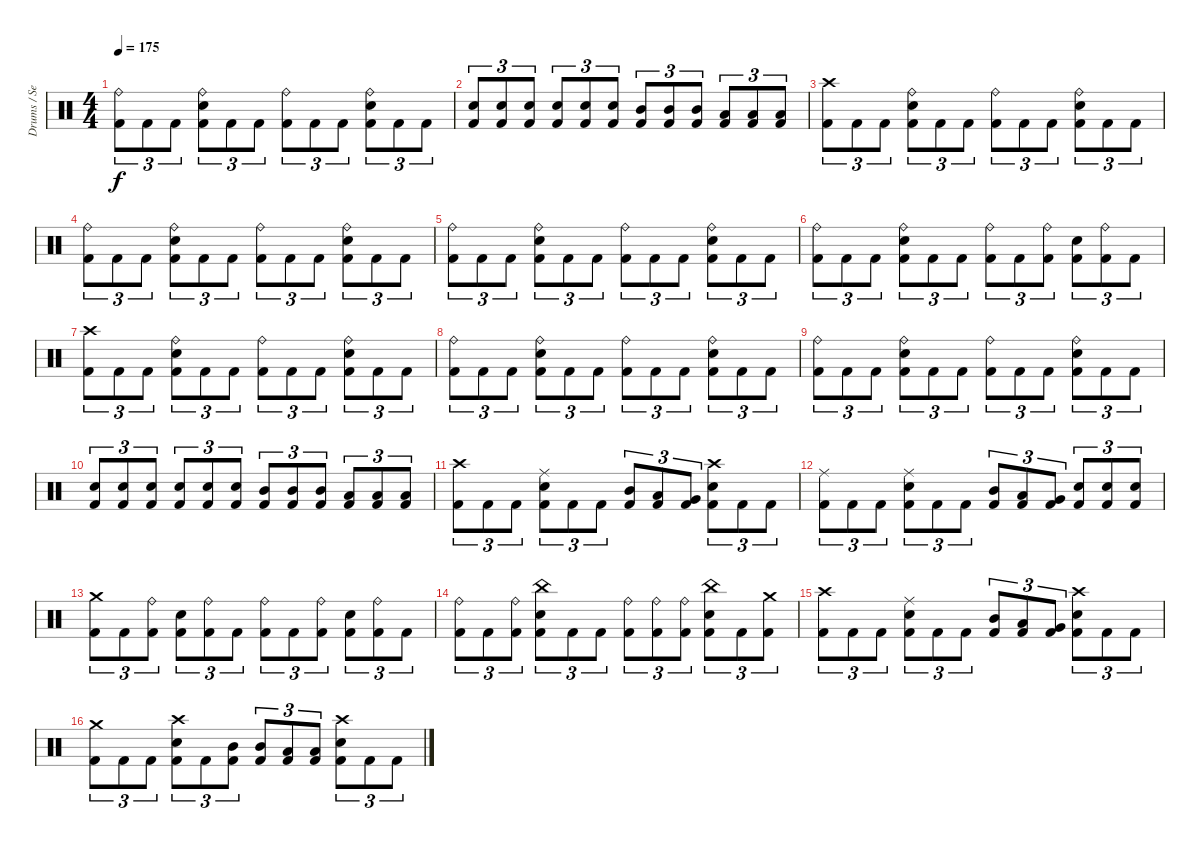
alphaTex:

\track ("Drums / Sean" "Drums / Se") {instrument percussion}
\staff {score}
\articulation defaults
\ts (4 4)
\tempo 175
\clef neutral
\ks c
("Ride (bell)" "Kick (hit) 2").8{tu (3 2) dy f} "Kick (hit) 2".8{tu (3 2)} "Kick (hit) 2".8{tu (3 2)} ("Ride (bell)" "Electric Snare (hit)" "Kick (hit) 2").8{tu (3 2)} "Kick (hit) 2".8{tu (3 2)} "Kick (hit) 2".8{tu (3 2)} ("Ride (bell)" "Kick (hit) 2").8{tu (3 2)} "Kick (hit) 2".8{tu (3 2)} "Kick (hit) 2".8{tu (3 2)} ("Ride (bell)" "Electric Snare (hit)" "Kick (hit) 2").8{tu (3 2)} "Kick (hit) 2".8{tu (3 2)} "Kick (hit) 2".8{tu (3 2)} |
("Electric Snare (hit)" "Kick (hit) 2").8{tu (3 2)} ("Electric Snare (hit)" "Kick (hit) 2").8{tu (3 2)} ("Electric Snare (hit)" "Kick (hit) 2").8{tu (3 2)} ("Electric Snare (hit)" "Kick (hit) 2").8{tu (3 2)} ("Electric Snare (hit)" "Kick (hit) 2").8{tu (3 2)} ("Electric Snare (hit)" "Kick (hit) 2").8{tu (3 2)} ("Mid Tom (hit)" "Kick (hit) 2").8{tu (3 2)} ("Mid Tom (hit)" "Kick (hit) 2").8{tu (3 2)} ("Mid Tom (hit)" "Kick (hit) 2").8{tu (3 2)} ("Low Tom (hit)" "Kick (hit) 2").8{tu (3 2)} ("Low Tom (hit)" "Kick (hit) 2").8{tu (3 2)} ("Low Tom (hit)" "Kick (hit) 2").8{tu (3 2)} |
("Crash high (hit)" "Kick (hit) 2").8{tu (3 2)} "Kick (hit) 2".8{tu (3 2)} "Kick (hit) 2".8{tu (3 2)} ("Ride (bell)" "Electric Snare (hit)" "Kick (hit) 2").8{tu (3 2)} "Kick (hit) 2".8{tu (3 2)} "Kick (hit) 2".8{tu (3 2)} ("Ride (bell)" "Kick (hit) 2").8{tu (3 2)} "Kick (hit) 2".8{tu (3 2)} "Kick (hit) 2".8{tu (3 2)} ("Ride (bell)" "Electric Snare (hit)" "Kick (hit) 2").8{tu (3 2)} "Kick (hit) 2".8{tu (3 2)} "Kick (hit) 2".8{tu (3 2)} |
("Ride (bell)" "Kick (hit) 2").8{tu (3 2)} "Kick (hit) 2".8{tu (3 2)} "Kick (hit) 2".8{tu (3 2)} ("Ride (bell)" "Electric Snare (hit)" "Kick (hit) 2").8{tu (3 2)} "Kick (hit) 2".8{tu (3 2)} "Kick (hit) 2".8{tu (3 2)} ("Ride (bell)" "Kick (hit) 2").8{tu (3 2)} "Kick (hit) 2".8{tu (3 2)} "Kick (hit) 2".8{tu (3 2)} ("Ride (bell)" "Electric Snare (hit)" "Kick (hit) 2").8{tu (3 2)} "Kick (hit) 2".8{tu (3 2)} "Kick (hit) 2".8{tu (3 2)} |
("Ride (bell)" "Kick (hit) 2").8{tu (3 2)} "Kick (hit) 2".8{tu (3 2)} "Kick (hit) 2".8{tu (3 2)} ("Ride (bell)" "Electric Snare (hit)" "Kick (hit) 2").8{tu (3 2)} "Kick (hit) 2".8{tu (3 2)} "Kick (hit) 2".8{tu (3 2)} ("Ride (bell)" "Kick (hit) 2").8{tu (3 2)} "Kick (hit) 2".8{tu (3 2)} "Kick (hit) 2".8{tu (3 2)} ("Ride (bell)" "Electric Snare (hit)" "Kick (hit) 2").8{tu (3 2)} "Kick (hit) 2".8{tu (3 2)} "Kick (hit) 2".8{tu (3 2)} |
("Ride (bell)" "Kick (hit) 2").8{tu (3 2)} "Kick (hit) 2".8{tu (3 2)} "Kick (hit) 2".8{tu (3 2)} ("Ride (bell)" "Electric Snare (hit)" "Kick (hit) 2").8{tu (3 2)} "Kick (hit) 2".8{tu (3 2)} "Kick (hit) 2".8{tu (3 2)} ("Ride (bell)" "Kick (hit) 2").8{tu (3 2)} "Kick (hit) 2".8{tu (3 2)} ("Ride (bell)" "Kick (hit) 2").8{tu (3 2)} ("Electric Snare (hit)" "Kick (hit) 2").8{tu (3 2)} ("Ride (bell)" "Kick (hit) 2").8{tu (3 2)} "Kick (hit) 2".8{tu (3 2)} |
("Crash high (hit)" "Kick (hit) 2").8{tu (3 2)} "Kick (hit) 2".8{tu (3 2)} "Kick (hit) 2".8{tu (3 2)} ("Ride (bell)" "Electric Snare (hit)" "Kick (hit) 2").8{tu (3 2)} "Kick (hit) 2".8{tu (3 2)} "Kick (hit) 2".8{tu (3 2)} ("Ride (bell)" "Kick (hit) 2").8{tu (3 2)} "Kick (hit) 2".8{tu (3 2)} "Kick (hit) 2".8{tu (3 2)} ("Ride (bell)" "Electric Snare (hit)" "Kick (hit) 2").8{tu (3 2)} "Kick (hit) 2".8{tu (3 2)} "Kick (hit) 2".8{tu (3 2)} |
("Ride (bell)" "Kick (hit) 2").8{tu (3 2)} "Kick (hit) 2".8{tu (3 2)} "Kick (hit) 2".8{tu (3 2)} ("Ride (bell)" "Electric Snare (hit)" "Kick (hit) 2").8{tu (3 2)} "Kick (hit) 2".8{tu (3 2)} "Kick (hit) 2".8{tu (3 2)} ("Ride (bell)" "Kick (hit) 2").8{tu (3 2)} "Kick (hit) 2".8{tu (3 2)} "Kick (hit) 2".8{tu (3 2)} ("Ride (bell)" "Electric Snare (hit)" "Kick (hit) 2").8{tu (3 2)} "Kick (hit) 2".8{tu (3 2)} "Kick (hit) 2".8{tu (3 2)} |
("Ride (bell)" "Kick (hit) 2").8{tu (3 2)} "Kick (hit) 2".8{tu (3 2)} "Kick (hit) 2".8{tu (3 2)} ("Ride (bell)" "Electric Snare (hit)" "Kick (hit) 2").8{tu (3 2)} "Kick (hit) 2".8{tu (3 2)} "Kick (hit) 2".8{tu (3 2)} ("Ride (bell)" "Kick (hit) 2").8{tu (3 2)} "Kick (hit) 2".8{tu (3 2)} "Kick (hit) 2".8{tu (3 2)} ("Ride (bell)" "Electric Snare (hit)" "Kick (hit) 2").8{tu (3 2)} "Kick (hit) 2".8{tu (3 2)} "Kick (hit) 2".8{tu (3 2)} |
("Electric Snare (hit)" "Kick (hit) 2").8{tu (3 2)} ("Electric Snare (hit)" "Kick (hit) 2").8{tu (3 2)} ("Electric Snare (hit)" "Kick (hit) 2").8{tu (3 2)} ("Electric Snare (hit)" "Kick (hit) 2").8{tu (3 2)} ("Electric Snare (hit)" "Kick (hit) 2").8{tu (3 2)} ("Electric Snare (hit)" "Kick (hit) 2").8{tu (3 2)} ("Mid Tom (hit)" "Kick (hit) 2").8{tu (3 2)} ("Mid Tom (hit)" "Kick (hit) 2").8{tu (3 2)} ("Mid Tom (hit)" "Kick (hit) 2").8{tu (3 2)} ("Low Tom (hit)" "Kick (hit) 2").8{tu (3 2)} ("Low Tom (hit)" "Kick (hit) 2").8{tu (3 2)} ("Low Tom (hit)" "Kick (hit) 2").8{tu (3 2)} |
("Crash high (hit)" "Kick (hit) 2").8{tu (3 2)} "Kick (hit) 2".8{tu (3 2)} "Kick (hit) 2".8{tu (3 2)} ("Ride (middle)" "Electric Snare (hit)" "Kick (hit) 2").8{tu (3 2)} "Kick (hit) 2".8{tu (3 2)} "Kick (hit) 2".8{tu (3 2)} ("Mid Tom (hit)" "Kick (hit) 2").8{tu (3 2)} ("Low Tom (hit)" "Kick (hit) 2").8{tu (3 2)} ("Very Low Tom (hit)" "Kick (hit) 2").8{tu (3 2)} ("Crash high (hit)" "Electric Snare (hit)" "Kick (hit) 2").8{tu (3 2)} "Kick (hit) 2".8{tu (3 2)} "Kick (hit) 2".8{tu (3 2)} |
("Ride (middle)" "Kick (hit) 2").8{tu (3 2)} "Kick (hit) 2".8{tu (3 2)} "Kick (hit) 2".8{tu (3 2)} ("Ride (middle)" "Electric Snare (hit)" "Kick (hit) 2").8{tu (3 2)} "Kick (hit) 2".8{tu (3 2)} "Kick (hit) 2".8{tu (3 2)} ("Mid Tom (hit)" "Kick (hit) 2").8{tu (3 2)} ("Low Tom (hit)" "Kick (hit) 2").8{tu (3 2)} ("Very Low Tom (hit)" "Kick (hit) 2").8{tu (3 2)} ("Electric Snare (hit)" "Kick (hit) 2").8{tu (3 2)} ("Electric Snare (hit)" "Kick (hit) 2").8{tu (3 2)} ("Electric Snare (hit)" "Kick (hit) 2").8{tu (3 2)} |
("Crash medium (hit)" "Kick (hit) 2").8{tu (3 2)} "Kick (hit) 2".8{tu (3 2)} ("Ride (bell)" "Kick (hit) 2").8{tu (3 2)} ("Electric Snare (hit)" "Kick (hit) 2").8{tu (3 2)} ("Ride (bell)" "Kick (hit) 2").8{tu (3 2)} "Kick (hit) 2".8{tu (3 2)} ("Ride (bell)" "Kick (hit) 2").8{tu (3 2)} "Kick (hit) 2".8{tu (3 2)} ("Ride (bell)" "Kick (hit) 2").8{tu (3 2)} ("Electric Snare (hit)" "Kick (hit) 2").8{tu (3 2)} ("Ride (bell)" "Kick (hit) 2").8{tu (3 2)} "Kick (hit) 2".8{tu (3 2)} |
("Ride (bell)" "Kick (hit) 2").8{tu (3 2)} "Kick (hit) 2".8{tu (3 2)} ("Ride (bell)" "Kick (hit) 2").8{tu (3 2)} ("China (hit)" "Electric Snare (hit)" "Kick (hit) 2").8{tu (3 2)} "Kick (hit) 2".8{tu (3 2)} "Kick (hit) 2".8{tu (3 2)} ("Ride (bell)" "Kick (hit) 2").8{tu (3 2)} ("Ride (bell)" "Kick (hit) 2").8{tu (3 2)} ("Ride (bell)" "Kick (hit) 2").8{tu (3 2)} ("China (hit)" "Electric Snare (hit)" "Kick (hit) 2").8{tu (3 2)} "Kick (hit) 2".8{tu (3 2)} ("Crash medium (hit)" "Kick (hit) 2").8{tu (3 2)} |
("Crash high (hit)" "Kick (hit) 2").8{tu (3 2)} "Kick (hit) 2".8{tu (3 2)} "Kick (hit) 2".8{tu (3 2)} ("Ride (middle)" "Electric Snare (hit)" "Kick (hit) 2").8{tu (3 2)} "Kick (hit) 2".8{tu (3 2)} "Kick (hit) 2".8{tu (3 2)} ("Mid Tom (hit)" "Kick (hit) 2").8{tu (3 2)} ("Low Tom (hit)" "Kick (hit) 2").8{tu (3 2)} ("Very Low Tom (hit)" "Kick (hit) 2").8{tu (3 2)} ("Crash high (hit)" "Electric Snare (hit)" "Kick (hit) 2").8{tu (3 2)} "Kick (hit) 2".8{tu (3 2)} "Kick (hit) 2".8{tu (3 2)} |
("Crash medium (hit)" "Kick (hit) 2").8{tu (3 2)} "Kick (hit) 2".8{tu (3 2)} "Kick (hit) 2".8{tu (3 2)} ("Crash high (hit)" "Electric Snare (hit)" "Kick (hit) 2").8{tu (3 2)} "Kick (hit) 2".8{tu (3 2)} ("Mid Tom (hit)" "Kick (hit) 2").8{tu (3 2)} ("Mid Tom (hit)" "Kick (hit) 2").8{tu (3 2)} ("Low Tom (hit)" "Kick (hit) 2").8{tu (3 2)} ("Low Tom (hit)" "Kick (hit) 2").8{tu (3 2)} ("Crash high (hit)" "Electric Snare (hit)" "Kick (hit) 2").8{tu (3 2)} "Kick (hit) 2".8{tu (3 2)} "Kick (hit) 2".8{tu (3 2)}
